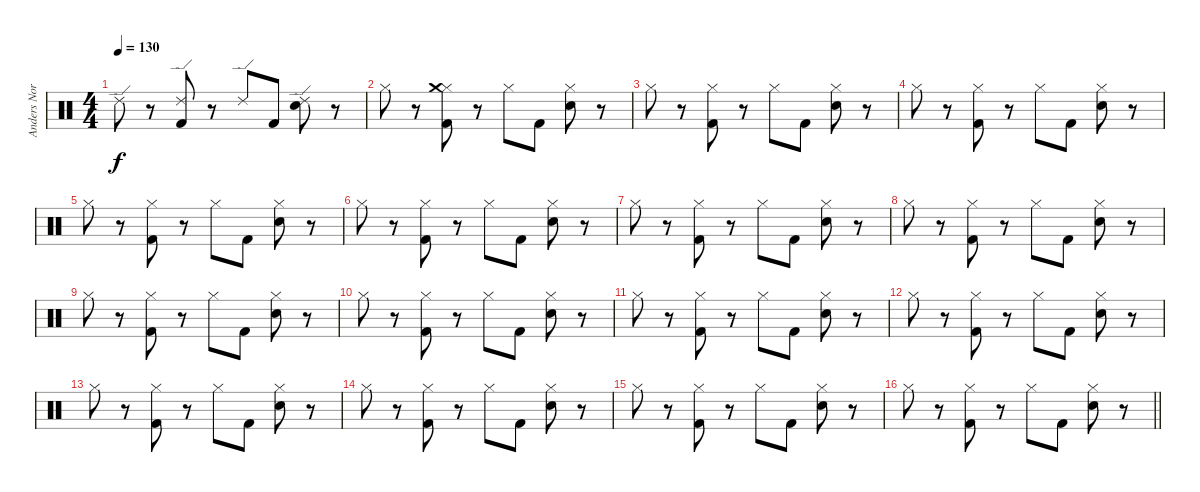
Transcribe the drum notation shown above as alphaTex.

\track ("Anders Nordin" "Anders Nor") {instrument percussion}
\staff {score}
\articulation defaults
\ts (4 4)
\tempo 130
\clef neutral
\ks c "Ride (edge) 2".8{dy f}
r.8 ("Ride (edge) 2" "Kick (hit) 2").8 r.8 "Ride (edge) 2".8 "Kick (hit) 2".8 ("Ride (edge) 2" "Snare (hit) 2").8 r.8 |
"Hi-Hat (closed)".8 r.8 ("Hi-Hat (closed)" "Crash medium (hit)" "Kick (hit) 2").8 r.8 "Hi-Hat (closed)".8 "Kick (hit) 2".8 ("Hi-Hat (closed)" "Snare (hit) 2").8 r.8 |
"Hi-Hat (closed)".8 r.8 ("Hi-Hat (closed)" "Kick (hit) 2").8 r.8 "Hi-Hat (closed)".8 "Kick (hit) 2".8 ("Hi-Hat (closed)" "Snare (hit) 2").8 r.8 |
"Hi-Hat (closed)".8 r.8 ("Hi-Hat (closed)" "Kick (hit) 2").8 r.8 "Hi-Hat (closed)".8 "Kick (hit) 2".8 ("Hi-Hat (closed)" "Snare (hit) 2").8 r.8 |
"Hi-Hat (closed)".8 r.8 ("Hi-Hat (closed)" "Kick (hit) 2").8 r.8 "Hi-Hat (closed)".8 "Kick (hit) 2".8 ("Hi-Hat (closed)" "Snare (hit) 2").8 r.8 |
"Hi-Hat (closed)".8 r.8 ("Hi-Hat (closed)" "Kick (hit) 2").8 r.8 "Hi-Hat (closed)".8 "Kick (hit) 2".8 ("Hi-Hat (closed)" "Snare (hit) 2").8 r.8 |
"Hi-Hat (closed)".8 r.8 ("Hi-Hat (closed)" "Kick (hit) 2").8 r.8 "Hi-Hat (closed)".8 "Kick (hit) 2".8 ("Hi-Hat (closed)" "Snare (hit) 2").8 r.8 |
"Hi-Hat (closed)".8 r.8 ("Hi-Hat (closed)" "Kick (hit) 2").8 r.8 "Hi-Hat (closed)".8 "Kick (hit) 2".8 ("Hi-Hat (closed)" "Snare (hit) 2").8 r.8 |
"Hi-Hat (closed)".8 r.8 ("Hi-Hat (closed)" "Kick (hit) 2").8 r.8 "Hi-Hat (closed)".8 "Kick (hit) 2".8 ("Hi-Hat (closed)" "Snare (hit) 2").8 r.8 |
"Hi-Hat (closed)".8 r.8 ("Hi-Hat (closed)" "Kick (hit) 2").8 r.8 "Hi-Hat (closed)".8 "Kick (hit) 2".8 ("Hi-Hat (closed)" "Snare (hit) 2").8 r.8 |
"Hi-Hat (closed)".8 r.8 ("Hi-Hat (closed)" "Kick (hit) 2").8 r.8 "Hi-Hat (closed)".8 "Kick (hit) 2".8 ("Hi-Hat (closed)" "Snare (hit) 2").8 r.8 |
"Hi-Hat (closed)".8 r.8 ("Hi-Hat (closed)" "Kick (hit) 2").8 r.8 "Hi-Hat (closed)".8 "Kick (hit) 2".8 ("Hi-Hat (closed)" "Snare (hit) 2").8 r.8 |
"Hi-Hat (closed)".8 r.8 ("Hi-Hat (closed)" "Kick (hit) 2").8 r.8 "Hi-Hat (closed)".8 "Kick (hit) 2".8 ("Hi-Hat (closed)" "Snare (hit) 2").8 r.8 |
"Hi-Hat (closed)".8 r.8 ("Hi-Hat (closed)" "Kick (hit) 2").8 r.8 "Hi-Hat (closed)".8 "Kick (hit) 2".8 ("Hi-Hat (closed)" "Snare (hit) 2").8 r.8 |
"Hi-Hat (closed)".8 r.8 ("Hi-Hat (closed)" "Kick (hit) 2").8 r.8 "Hi-Hat (closed)".8 "Kick (hit) 2".8 ("Hi-Hat (closed)" "Snare (hit) 2").8 r.8 |
\barLineRight lightlight "Hi-Hat (closed)".8
r.8 ("Hi-Hat (closed)" "Kick (hit) 2").8 r.8 "Hi-Hat (closed)".8 "Kick (hit) 2".8 ("Hi-Hat (closed)" "Snare (hit) 2").8 r.8
